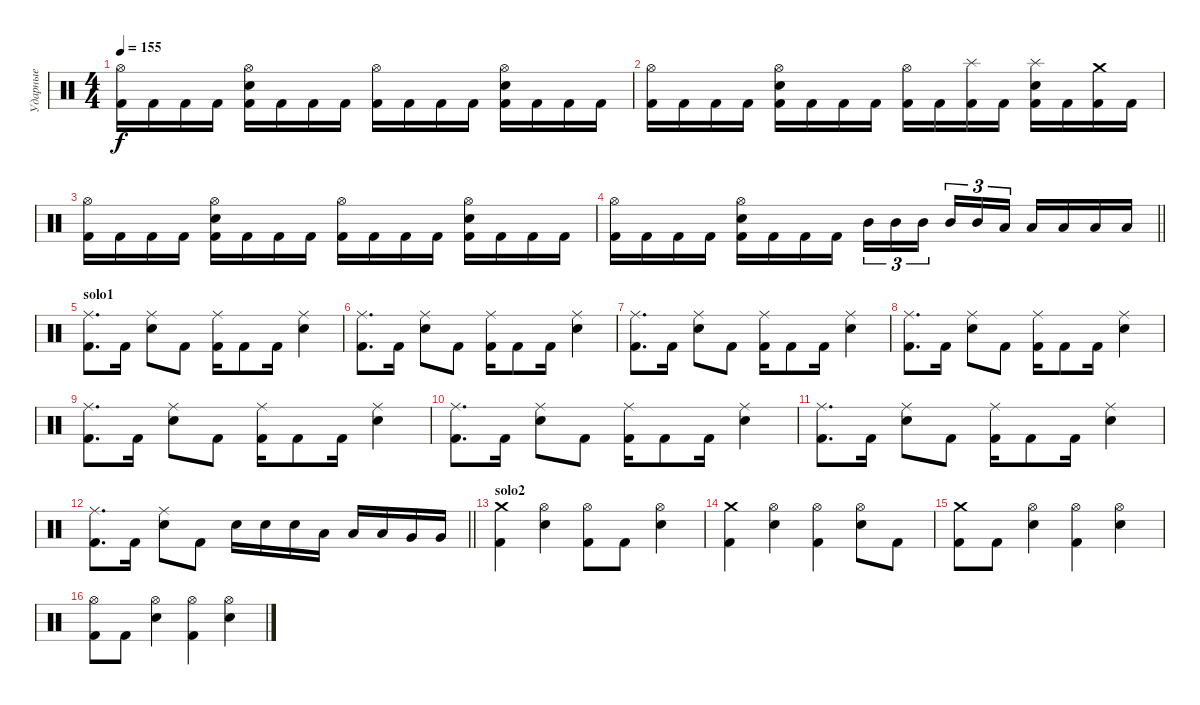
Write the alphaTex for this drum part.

\track ("Ударные" "Ударные") {instrument percussion}
\staff {score}
\articulation defaults
\ts (4 4)
\tempo 155
\clef neutral
\ks c
("Hi-Hat (open)" "Kick (hit) 2").16{dy f} "Kick (hit) 2".16 "Kick (hit) 2".16 "Kick (hit) 2".16 ("Hi-Hat (open)" "Electric Snare (hit)" "Kick (hit) 2").16 "Kick (hit) 2".16 "Kick (hit) 2".16 "Kick (hit) 2".16 ("Hi-Hat (open)" "Kick (hit) 2").16 "Kick (hit) 2".16 "Kick (hit) 2".16 "Kick (hit) 2".16 ("Hi-Hat (open)" "Electric Snare (hit)" "Kick (hit) 2").16 "Kick (hit) 2".16 "Kick (hit) 2".16 "Kick (hit) 2".16 |
("Hi-Hat (open)" "Kick (hit) 2").16 "Kick (hit) 2".16 "Kick (hit) 2".16 "Kick (hit) 2".16 ("Hi-Hat (open)" "Electric Snare (hit)" "Kick (hit) 2").16 "Kick (hit) 2".16 "Kick (hit) 2".16 "Kick (hit) 2".16 ("Hi-Hat (open)" "Kick (hit) 2").16 "Kick (hit) 2".16 ("Splash (hit)" "Kick (hit) 2").16 "Kick (hit) 2".16 ("Splash (hit)" "Electric Snare (hit)" "Kick (hit) 2").16 "Kick (hit) 2".16 ("Crash medium (hit)" "Kick (hit) 2").16 "Kick (hit) 2".16 |
("Hi-Hat (open)" "Kick (hit) 2").16 "Kick (hit) 2".16 "Kick (hit) 2".16 "Kick (hit) 2".16 ("Hi-Hat (open)" "Electric Snare (hit)" "Kick (hit) 2").16 "Kick (hit) 2".16 "Kick (hit) 2".16 "Kick (hit) 2".16 ("Hi-Hat (open)" "Kick (hit) 2").16 "Kick (hit) 2".16 "Kick (hit) 2".16 "Kick (hit) 2".16 ("Hi-Hat (open)" "Electric Snare (hit)" "Kick (hit) 2").16 "Kick (hit) 2".16 "Kick (hit) 2".16 "Kick (hit) 2".16 |
\barLineRight lightlight
("Hi-Hat (open)" "Kick (hit) 2").16 "Kick (hit) 2".16 "Kick (hit) 2".16 "Kick (hit) 2".16 ("Hi-Hat (open)" "Electric Snare (hit)" "Kick (hit) 2").16 "Kick (hit) 2".16 "Kick (hit) 2".16 "Kick (hit) 2".16 "Mid Tom (hit)".16{tu (3 2)} "Mid Tom (hit)".16{tu (3 2)} "Mid Tom (hit)".16{tu (3 2) beam splitsecondary} "Mid Tom (hit)".16{tu (3 2)} "Mid Tom (hit)".16{tu (3 2)} "Low Tom (hit)".16{tu (3 2)} "Low Tom (hit)".16 "Low Tom (hit)".16 "Low Floor Tom (hit)".16 "Low Floor Tom (hit)".16 |
\section ("" "solo1")
("Ride (middle)" "Kick (hit) 2").8{d} "Kick (hit) 2".16 ("Ride (middle)" "Electric Snare (hit)").8 "Kick (hit) 2".8 ("Ride (middle)" "Kick (hit) 2").16 "Kick (hit) 2".8 "Kick (hit) 2".16 ("Ride (middle)" "Electric Snare (hit)").4 |
("Ride (middle)" "Kick (hit) 2").8{d} "Kick (hit) 2".16 ("Ride (middle)" "Electric Snare (hit)").8 "Kick (hit) 2".8 ("Ride (middle)" "Kick (hit) 2").16 "Kick (hit) 2".8 "Kick (hit) 2".16 ("Ride (middle)" "Electric Snare (hit)").4 |
("Ride (middle)" "Kick (hit) 2").8{d} "Kick (hit) 2".16 ("Ride (middle)" "Electric Snare (hit)").8 "Kick (hit) 2".8 ("Ride (middle)" "Kick (hit) 2").16 "Kick (hit) 2".8 "Kick (hit) 2".16 ("Ride (middle)" "Electric Snare (hit)").4 |
("Ride (middle)" "Kick (hit) 2").8{d} "Kick (hit) 2".16 ("Ride (middle)" "Electric Snare (hit)").8 "Kick (hit) 2".8 ("Ride (middle)" "Kick (hit) 2").16 "Kick (hit) 2".8 "Kick (hit) 2".16 ("Ride (middle)" "Electric Snare (hit)").4 |
("Ride (middle)" "Kick (hit) 2").8{d} "Kick (hit) 2".16 ("Ride (middle)" "Electric Snare (hit)").8 "Kick (hit) 2".8 ("Ride (middle)" "Kick (hit) 2").16 "Kick (hit) 2".8 "Kick (hit) 2".16 ("Ride (middle)" "Electric Snare (hit)").4 |
("Ride (middle)" "Kick (hit) 2").8{d} "Kick (hit) 2".16 ("Ride (middle)" "Electric Snare (hit)").8 "Kick (hit) 2".8 ("Ride (middle)" "Kick (hit) 2").16 "Kick (hit) 2".8 "Kick (hit) 2".16 ("Ride (middle)" "Electric Snare (hit)").4 |
("Ride (middle)" "Kick (hit) 2").8{d} "Kick (hit) 2".16 ("Ride (middle)" "Electric Snare (hit)").8 "Kick (hit) 2".8 ("Ride (middle)" "Kick (hit) 2").16 "Kick (hit) 2".8 "Kick (hit) 2".16 ("Ride (middle)" "Electric Snare (hit)").4 |
\barLineRight lightlight
("Ride (middle)" "Kick (hit) 2").8{d} "Kick (hit) 2".16 ("Ride (middle)" "Electric Snare (hit)").8 "Kick (hit) 2".8 "Electric Snare (hit)".16 "Electric Snare (hit)".16 "Electric Snare (hit)".16 "Low Tom (hit)".16 "Low Tom (hit)".16 "Low Tom (hit)".16 "Very Low Tom (hit)".16 "Very Low Tom (hit)".16 |
\section ("" "solo2")
("Crash medium (hit)" "Kick (hit) 2").4 ("Hi-Hat (open)" "Electric Snare (hit)").4 ("Hi-Hat (open)" "Kick (hit) 2").8 "Kick (hit) 2".8 ("Hi-Hat (open)" "Electric Snare (hit)").4 |
("Crash medium (hit)" "Kick (hit) 2").4 ("Hi-Hat (open)" "Electric Snare (hit)").4 ("Hi-Hat (open)" "Kick (hit) 2").4 ("Hi-Hat (open)" "Electric Snare (hit)").8 "Kick (hit) 2".8 |
("Crash medium (hit)" "Kick (hit) 2").8 "Kick (hit) 2".8 ("Hi-Hat (open)" "Electric Snare (hit)").4 ("Hi-Hat (open)" "Kick (hit) 2").4 ("Hi-Hat (open)" "Electric Snare (hit)").4 |
("Hi-Hat (open)" "Kick (hit) 2").8 "Kick (hit) 2".8 ("Hi-Hat (open)" "Electric Snare (hit)").4 ("Hi-Hat (open)" "Kick (hit) 2").4 ("Hi-Hat (open)" "Electric Snare (hit)").4
